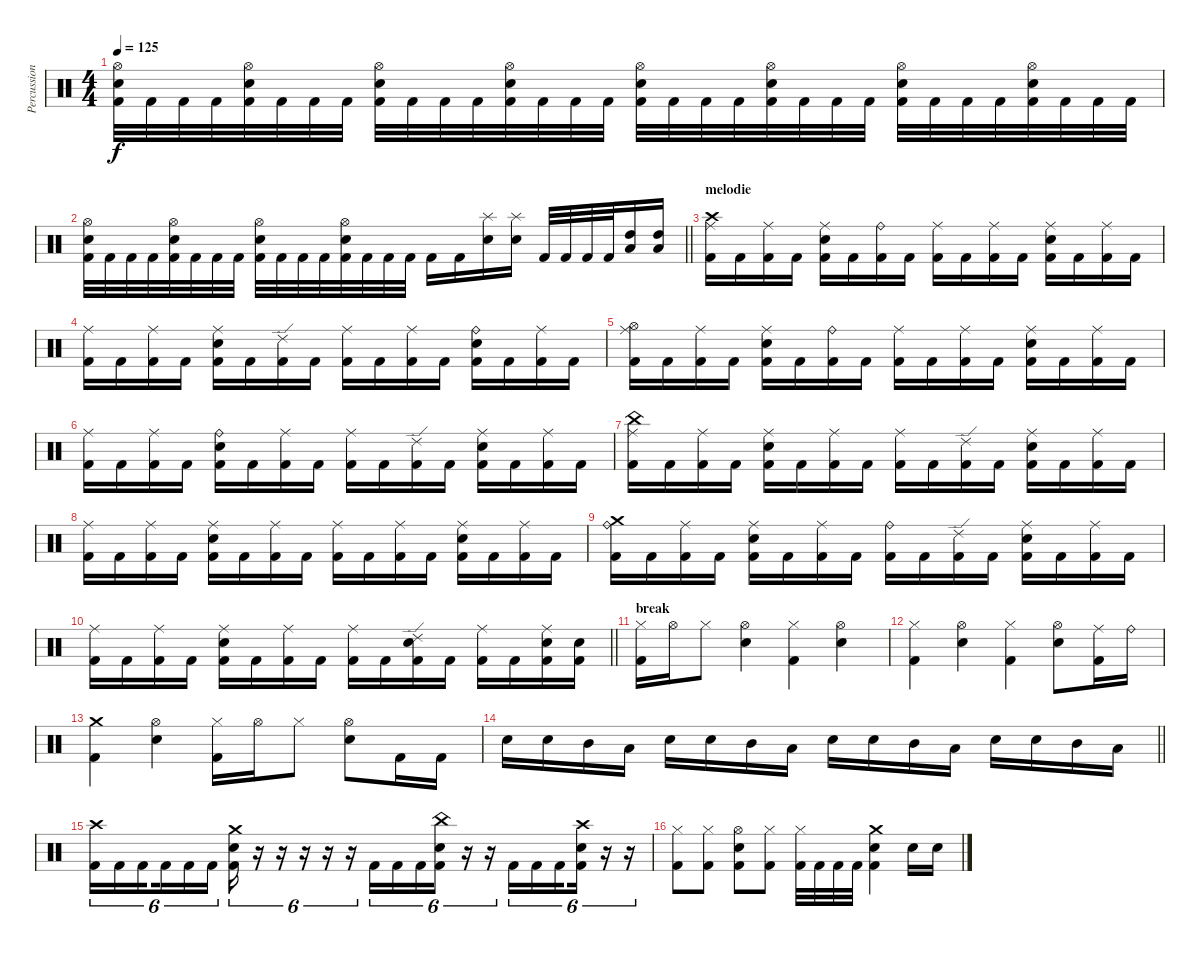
\track ("Percussions" "Percussion") {instrument percussion}
\staff {score}
\articulation defaults
\ts (4 4)
\tempo 125
\clef neutral
\ks c
("Hi-Hat (open)" "Electric Snare (hit)" "Kick (hit) 2").32{dy f} "Kick (hit) 2".32 "Kick (hit) 2".32 "Kick (hit) 2".32 ("Hi-Hat (open)" "Electric Snare (hit)" "Kick (hit) 2").32 "Kick (hit) 2".32 "Kick (hit) 2".32 "Kick (hit) 2".32 ("Hi-Hat (open)" "Electric Snare (hit)" "Kick (hit) 2").32 "Kick (hit) 2".32 "Kick (hit) 2".32 "Kick (hit) 2".32 ("Hi-Hat (open)" "Electric Snare (hit)" "Kick (hit) 2").32 "Kick (hit) 2".32 "Kick (hit) 2".32 "Kick (hit) 2".32 ("Hi-Hat (open)" "Electric Snare (hit)" "Kick (hit) 2").32 "Kick (hit) 2".32 "Kick (hit) 2".32 "Kick (hit) 2".32 ("Hi-Hat (open)" "Electric Snare (hit)" "Kick (hit) 2").32 "Kick (hit) 2".32 "Kick (hit) 2".32 "Kick (hit) 2".32 ("Hi-Hat (open)" "Electric Snare (hit)" "Kick (hit) 2").32 "Kick (hit) 2".32 "Kick (hit) 2".32 "Kick (hit) 2".32 ("Hi-Hat (open)" "Electric Snare (hit)" "Kick (hit) 2").32 "Kick (hit) 2".32 "Kick (hit) 2".32 "Kick (hit) 2".32 |
\barLineRight lightlight
("Hi-Hat (open)" "Electric Snare (hit)" "Kick (hit) 2").32 "Kick (hit) 2".32 "Kick (hit) 2".32 "Kick (hit) 2".32 ("Hi-Hat (open)" "Electric Snare (hit)" "Kick (hit) 2").32 "Kick (hit) 2".32 "Kick (hit) 2".32 "Kick (hit) 2".32 ("Hi-Hat (open)" "Electric Snare (hit)" "Kick (hit) 2").32 "Kick (hit) 2".32 "Kick (hit) 2".32 "Kick (hit) 2".32 ("Hi-Hat (open)" "Electric Snare (hit)" "Kick (hit) 2").32 "Kick (hit) 2".32 "Kick (hit) 2".32 "Kick (hit) 2".32 "Kick (hit) 2".16 "Kick (hit) 2".16 ("Splash (hit)" "Electric Snare (hit)").16 ("Splash (hit)" "Electric Snare (hit)").16 "Kick (hit) 2".32 "Kick (hit) 2".32 "Kick (hit) 2".32 "Kick (hit) 2".32 ("High Tom (hit)" "Low Tom (hit)").16 ("High Tom (hit)" "Low Tom (hit)").16 |
\section ("" "melodie")
("Ride (middle)" "Crash high (hit)" "Kick (hit) 2").16 "Kick (hit) 2".16 ("Ride (middle)" "Kick (hit) 2").16 "Kick (hit) 2".16 ("Ride (middle)" "Electric Snare (hit)" "Kick (hit) 2").16 "Kick (hit) 2".16 ("Ride (bell)" "Kick (hit) 2").16 "Kick (hit) 2".16 ("Ride (middle)" "Kick (hit) 2").16 "Kick (hit) 2".16 ("Ride (middle)" "Kick (hit) 2").16 "Kick (hit) 2".16 ("Ride (middle)" "Electric Snare (hit)" "Kick (hit) 2").16 "Kick (hit) 2".16 ("Ride (middle)" "Kick (hit) 2").16 "Kick (hit) 2".16 |
("Ride (middle)" "Kick (hit) 2").16 "Kick (hit) 2".16 ("Ride (middle)" "Kick (hit) 2").16 "Kick (hit) 2".16 ("Ride (middle)" "Electric Snare (hit)" "Kick (hit) 2").16 "Kick (hit) 2".16 ("Ride (edge) 2" "Kick (hit) 2").16 "Kick (hit) 2".16 ("Ride (middle)" "Kick (hit) 2").16 "Kick (hit) 2".16 ("Ride (middle)" "Kick (hit) 2").16 "Kick (hit) 2".16 ("Ride (bell)" "Electric Snare (hit)" "Kick (hit) 2").16 "Kick (hit) 2".16 ("Ride (middle)" "Kick (hit) 2").16 "Kick (hit) 2".16 |
("Ride (middle)" "Hi-Hat (open)" "Kick (hit) 2").16 "Kick (hit) 2".16 ("Ride (middle)" "Kick (hit) 2").16 "Kick (hit) 2".16 ("Ride (middle)" "Electric Snare (hit)" "Kick (hit) 2").16 "Kick (hit) 2".16 ("Ride (bell)" "Kick (hit) 2").16 "Kick (hit) 2".16 ("Ride (middle)" "Kick (hit) 2").16 "Kick (hit) 2".16 ("Ride (middle)" "Kick (hit) 2").16 "Kick (hit) 2".16 ("Ride (middle)" "Electric Snare (hit)" "Kick (hit) 2").16 "Kick (hit) 2".16 ("Ride (middle)" "Kick (hit) 2").16 "Kick (hit) 2".16 |
("Ride (middle)" "Kick (hit) 2").16 "Kick (hit) 2".16 ("Ride (middle)" "Kick (hit) 2").16 "Kick (hit) 2".16 ("Ride (bell)" "Electric Snare (hit)" "Kick (hit) 2").16 "Kick (hit) 2".16 ("Ride (middle)" "Kick (hit) 2").16 "Kick (hit) 2".16 ("Ride (middle)" "Kick (hit) 2").16 "Kick (hit) 2".16 ("Ride (edge) 2" "Kick (hit) 2").16 "Kick (hit) 2".16 ("Ride (middle)" "Electric Snare (hit)" "Kick (hit) 2").16 "Kick (hit) 2".16 ("Ride (middle)" "Kick (hit) 2").16 "Kick (hit) 2".16 |
("Ride (middle)" "China (hit)" "Kick (hit) 2").16 "Kick (hit) 2".16 ("Ride (middle)" "Kick (hit) 2").16 "Kick (hit) 2".16 ("Ride (middle)" "Electric Snare (hit)" "Kick (hit) 2").16 "Kick (hit) 2".16 ("Ride (middle)" "Kick (hit) 2").16 "Kick (hit) 2".16 ("Ride (middle)" "Kick (hit) 2").16 "Kick (hit) 2".16 ("Ride (edge) 2" "Kick (hit) 2").16 "Kick (hit) 2".16 ("Ride (middle)" "Electric Snare (hit)" "Kick (hit) 2").16 "Kick (hit) 2".16 ("Ride (middle)" "Kick (hit) 2").16 "Kick (hit) 2".16 |
("Ride (middle)" "Kick (hit) 2").16 "Kick (hit) 2".16 ("Ride (middle)" "Kick (hit) 2").16 "Kick (hit) 2".16 ("Ride (middle)" "Electric Snare (hit)" "Kick (hit) 2").16 "Kick (hit) 2".16 ("Ride (middle)" "Kick (hit) 2").16 "Kick (hit) 2".16 ("Ride (middle)" "Kick (hit) 2").16 "Kick (hit) 2".16 ("Ride (middle)" "Kick (hit) 2").16 "Kick (hit) 2".16 ("Ride (middle)" "Electric Snare (hit)" "Kick (hit) 2").16 "Kick (hit) 2".16 ("Ride (middle)" "Kick (hit) 2").16 "Kick (hit) 2".16 |
("Ride (bell)" "Crash medium (hit)" "Kick (hit) 2").16 "Kick (hit) 2".16 ("Ride (middle)" "Kick (hit) 2").16 "Kick (hit) 2".16 ("Ride (middle)" "Electric Snare (hit)" "Kick (hit) 2").16 "Kick (hit) 2".16 ("Ride (middle)" "Kick (hit) 2").16 "Kick (hit) 2".16 ("Ride (bell)" "Kick (hit) 2").16 "Kick (hit) 2".16 ("Ride (edge) 2" "Kick (hit) 2").16 "Kick (hit) 2".16 ("Ride (middle)" "Electric Snare (hit)" "Kick (hit) 2").16 "Kick (hit) 2".16 ("Ride (middle)" "Kick (hit) 2").16 "Kick (hit) 2".16 |
\barLineRight lightlight
("Ride (middle)" "Kick (hit) 2").16 "Kick (hit) 2".16 ("Ride (middle)" "Kick (hit) 2").16 "Kick (hit) 2".16 ("Ride (middle)" "Electric Snare (hit)" "Kick (hit) 2").16 "Kick (hit) 2".16 ("Ride (middle)" "Kick (hit) 2").16 "Kick (hit) 2".16 ("Ride (middle)" "Kick (hit) 2").16 "Kick (hit) 2".16 ("Ride (edge) 2" "Electric Snare (hit)" "Kick (hit) 2").16 "Kick (hit) 2".16 ("Ride (middle)" "Kick (hit) 2").16 "Kick (hit) 2".16 ("Ride (middle)" "Electric Snare (hit)" "Kick (hit) 2").16 ("Electric Snare (hit)" "Kick (hit) 2").16 |
\section ("" "break")
("Hi-Hat (closed)" "Kick (hit) 2").16 "Hi-Hat (open)".16 "Hi-Hat (closed)".8 ("Hi-Hat (open)" "Electric Snare (hit)").4 ("Hi-Hat (closed)" "Kick (hit) 2").4 ("Hi-Hat (open)" "Electric Snare (hit)").4 |
("Hi-Hat (closed)" "Kick (hit) 2").4 ("Hi-Hat (open)" "Electric Snare (hit)").4 ("Hi-Hat (closed)" "Kick (hit) 2").4 ("Hi-Hat (open)" "Electric Snare (hit)").8 ("Ride (middle)" "Kick (hit) 2").16 "Ride (bell)".16 |
("Crash medium (hit)" "Kick (hit) 2").4 ("Hi-Hat (open)" "Electric Snare (hit)").4 ("Hi-Hat (closed)" "Kick (hit) 2").16 "Hi-Hat (open)".16 "Hi-Hat (closed)".8 ("Hi-Hat (open)" "Electric Snare (hit)").8 "Kick (hit) 2".16 "Kick (hit) 2".16 |
\barLineRight lightlight "Electric Snare (hit)".16 "Electric Snare (hit)".16 "Mid Tom (hit)".16 "Low Tom (hit)".16 "Electric Snare (hit)".16 "Electric Snare (hit)".16 "Mid Tom (hit)".16 "Low Tom (hit)".16 "Electric Snare (hit)".16 "Electric Snare (hit)".16 "Mid Tom (hit)".16 "Low Tom (hit)".16 "Electric Snare (hit)".16 "Electric Snare (hit)".16 "Mid Tom (hit)".16 "Low Tom (hit)".16
|
("Crash high (hit)" "Kick (hit) 2").16{tu (6 4)} "Kick (hit) 2".16{tu (6 4)} "Kick (hit) 2".16{tu (6 4) beam splitsecondary} "Kick (hit) 2".16{tu (6 4)} "Kick (hit) 2".16{tu (6 4)} "Kick (hit) 2".16{tu (6 4)} ("Crash medium (hit)" "Electric Snare (hit)" "Kick (hit) 2").16{tu (6 4)} r.16{tu (6 4)} r.16{tu (6 4)} r.16{tu (6 4)} r.16{tu (6 4)} r.16{tu (6 4)} "Kick (hit) 2".16{tu (6 4)} "Kick (hit) 2".16{tu (6 4)} "Kick (hit) 2".16{tu (6 4) beam splitsecondary} ("China (hit)" "Electric Snare (hit)" "Kick (hit) 2").16{tu (6 4)} r.16{tu (6 4)} r.16{tu (6 4)} "Kick (hit) 2".16{tu (6 4)} "Kick (hit) 2".16{tu (6 4)} "Kick (hit) 2".16{tu (6 4) beam splitsecondary} ("Crash high (hit)" "Electric Snare (hit)" "Kick (hit) 2").16{tu (6 4)} r.16{tu (6 4)} r.16{tu (6 4)} |
("Hi-Hat (closed)" "Kick (hit) 2").8 ("Hi-Hat (closed)" "Kick (hit) 2").8 ("Hi-Hat (open)" "Electric Snare (hit)" "Kick (hit) 2").8 ("Hi-Hat (closed)" "Kick (hit) 2").8 ("Hi-Hat (closed)" "Kick (hit) 2").32 "Kick (hit) 2".32 "Kick (hit) 2".32 "Kick (hit) 2".32 ("Crash medium (hit)" "Electric Snare (hit)" "Kick (hit) 2").4 "Electric Snare (hit)".16 "Electric Snare (hit)".16
